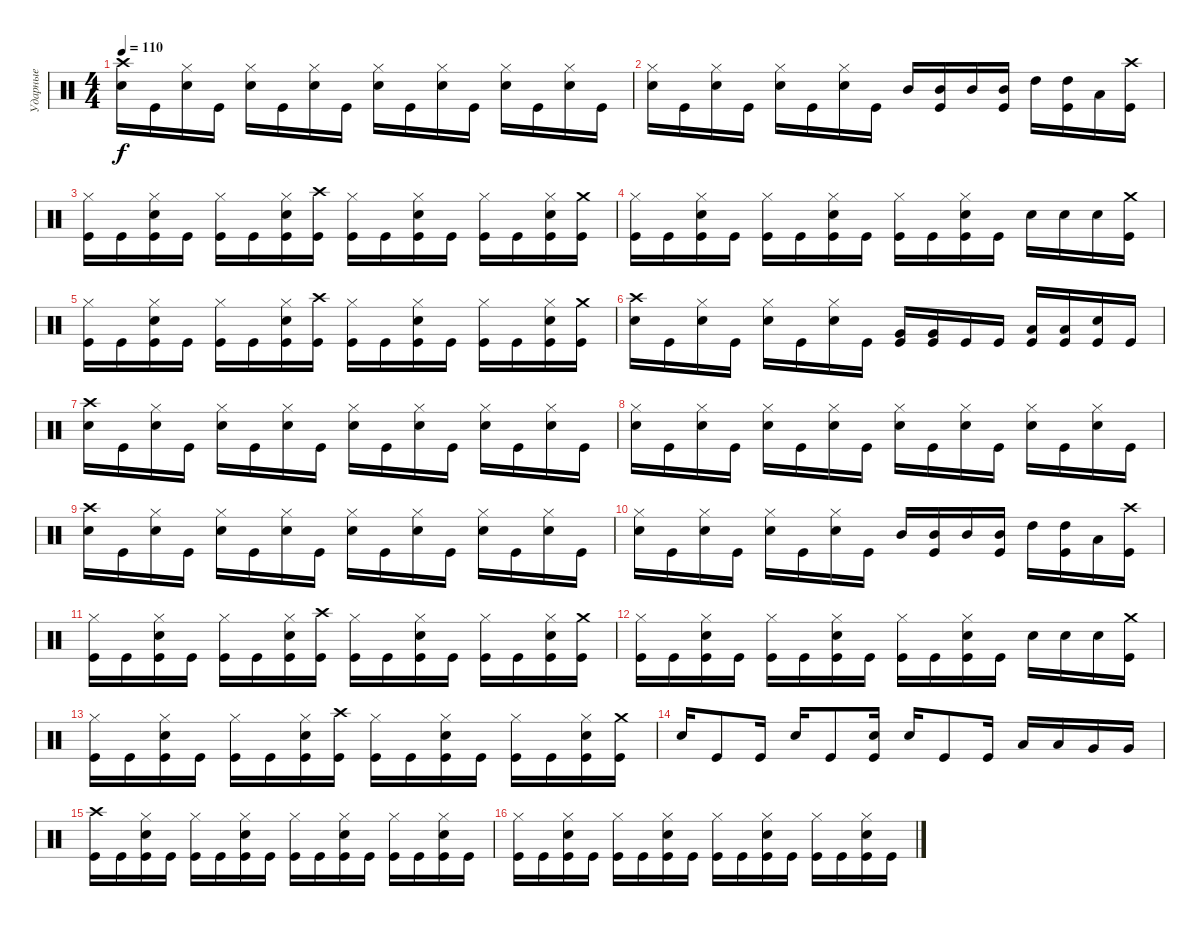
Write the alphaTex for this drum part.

\track ("Ударные" "Ударные") {instrument percussion}
\staff {score}
\articulation defaults
\ts (4 4)
\tempo 110
\clef neutral
\ks c
("Crash high (hit)" "Electric Snare (hit)").16{dy f} "Kick (hit)".16 ("Hi-Hat (closed)" "Electric Snare (hit)").16 "Kick (hit)".16 ("Hi-Hat (closed)" "Electric Snare (hit)").16 "Kick (hit)".16 ("Hi-Hat (closed)" "Electric Snare (hit)").16 "Kick (hit)".16 ("Hi-Hat (closed)" "Electric Snare (hit)").16 "Kick (hit)".16 ("Hi-Hat (closed)" "Electric Snare (hit)").16 "Kick (hit)".16 ("Hi-Hat (closed)" "Electric Snare (hit)").16 "Kick (hit)".16 ("Hi-Hat (closed)" "Electric Snare (hit)").16 "Kick (hit)".16 |
("Hi-Hat (closed)" "Electric Snare (hit)").16 "Kick (hit)".16 ("Hi-Hat (closed)" "Electric Snare (hit)").16 "Kick (hit)".16 ("Hi-Hat (closed)" "Electric Snare (hit)").16 "Kick (hit)".16 ("Hi-Hat (closed)" "Electric Snare (hit)").16 "Kick (hit)".16 "Mid Tom (hit)".16 ("Mid Tom (hit)" "Kick (hit)").16 "Mid Tom (hit)".16 ("Mid Tom (hit)" "Kick (hit)").16 "High Tom (hit)".16 ("High Tom (hit)" "Kick (hit)").16 "Low Tom (hit)".16 ("Crash high (hit)" "Kick (hit)").16 |
("Hi-Hat (closed)" "Kick (hit)").16 "Kick (hit)".16 ("Hi-Hat (closed)" "Electric Snare (hit)" "Kick (hit)").16 "Kick (hit)".16 ("Hi-Hat (closed)" "Kick (hit)").16 "Kick (hit)".16 ("Hi-Hat (closed)" "Electric Snare (hit)" "Kick (hit)").16 ("Crash high (hit)" "Kick (hit)").16 ("Hi-Hat (closed)" "Kick (hit)").16 "Kick (hit)".16 ("Hi-Hat (closed)" "Electric Snare (hit)" "Kick (hit)").16 "Kick (hit)".16 ("Hi-Hat (closed)" "Kick (hit)").16 "Kick (hit)".16 ("Hi-Hat (closed)" "Electric Snare (hit)" "Kick (hit)").16 ("Crash medium (hit)" "Kick (hit)").16 |
("Hi-Hat (closed)" "Kick (hit)").16 "Kick (hit)".16 ("Hi-Hat (closed)" "Electric Snare (hit)" "Kick (hit)").16 "Kick (hit)".16 ("Hi-Hat (closed)" "Kick (hit)").16 "Kick (hit)".16 ("Hi-Hat (closed)" "Electric Snare (hit)" "Kick (hit)").16 "Kick (hit)".16 ("Hi-Hat (closed)" "Kick (hit)").16 "Kick (hit)".16 ("Hi-Hat (closed)" "Electric Snare (hit)" "Kick (hit)").16 "Kick (hit)".16 "Electric Snare (hit)".16 "Electric Snare (hit)".16 "Electric Snare (hit)".16 ("Crash medium (hit)" "Kick (hit)").16 |
("Hi-Hat (closed)" "Kick (hit)").16 "Kick (hit)".16 ("Hi-Hat (closed)" "Electric Snare (hit)" "Kick (hit)").16 "Kick (hit)".16 ("Hi-Hat (closed)" "Kick (hit)").16 "Kick (hit)".16 ("Hi-Hat (closed)" "Electric Snare (hit)" "Kick (hit)").16 ("Crash high (hit)" "Kick (hit)").16 ("Hi-Hat (closed)" "Kick (hit)").16 "Kick (hit)".16 ("Hi-Hat (closed)" "Electric Snare (hit)" "Kick (hit)").16 "Kick (hit)".16 ("Hi-Hat (closed)" "Kick (hit)").16 "Kick (hit)".16 ("Hi-Hat (closed)" "Electric Snare (hit)" "Kick (hit)").16 ("Crash medium (hit)" "Kick (hit)").16 |
("Crash high (hit)" "Electric Snare (hit)").16 "Kick (hit)".16 ("Hi-Hat (closed)" "Electric Snare (hit)").16 "Kick (hit)".16 ("Hi-Hat (closed)" "Electric Snare (hit)").16 "Kick (hit)".16 ("Hi-Hat (closed)" "Electric Snare (hit)").16 "Kick (hit)".16 ("Very Low Tom (hit)" "Kick (hit)").16 ("Very Low Tom (hit)" "Kick (hit)").16 "Kick (hit)".16 "Kick (hit)".16 ("Low Tom (hit)" "Kick (hit)").16 ("Low Tom (hit)" "Kick (hit)").16 ("Electric Snare (hit)" "Kick (hit)").16 "Kick (hit)".16 |
("Crash high (hit)" "Electric Snare (hit)").16 "Kick (hit)".16 ("Hi-Hat (closed)" "Electric Snare (hit)").16 "Kick (hit)".16 ("Hi-Hat (closed)" "Electric Snare (hit)").16 "Kick (hit)".16 ("Hi-Hat (closed)" "Electric Snare (hit)").16 "Kick (hit)".16 ("Hi-Hat (closed)" "Electric Snare (hit)").16 "Kick (hit)".16 ("Hi-Hat (closed)" "Electric Snare (hit)").16 "Kick (hit)".16 ("Hi-Hat (closed)" "Electric Snare (hit)").16 "Kick (hit)".16 ("Hi-Hat (closed)" "Electric Snare (hit)").16 "Kick (hit)".16 |
("Hi-Hat (closed)" "Electric Snare (hit)").16 "Kick (hit)".16 ("Hi-Hat (closed)" "Electric Snare (hit)").16 "Kick (hit)".16 ("Hi-Hat (closed)" "Electric Snare (hit)").16 "Kick (hit)".16 ("Hi-Hat (closed)" "Electric Snare (hit)").16 "Kick (hit)".16 ("Hi-Hat (closed)" "Electric Snare (hit)").16 "Kick (hit)".16 ("Hi-Hat (closed)" "Electric Snare (hit)").16 "Kick (hit)".16 ("Hi-Hat (closed)" "Electric Snare (hit)").16 "Kick (hit)".16 ("Hi-Hat (closed)" "Electric Snare (hit)").16 "Kick (hit)".16 |
("Crash high (hit)" "Electric Snare (hit)").16 "Kick (hit)".16 ("Hi-Hat (closed)" "Electric Snare (hit)").16 "Kick (hit)".16 ("Hi-Hat (closed)" "Electric Snare (hit)").16 "Kick (hit)".16 ("Hi-Hat (closed)" "Electric Snare (hit)").16 "Kick (hit)".16 ("Hi-Hat (closed)" "Electric Snare (hit)").16 "Kick (hit)".16 ("Hi-Hat (closed)" "Electric Snare (hit)").16 "Kick (hit)".16 ("Hi-Hat (closed)" "Electric Snare (hit)").16 "Kick (hit)".16 ("Hi-Hat (closed)" "Electric Snare (hit)").16 "Kick (hit)".16 |
("Hi-Hat (closed)" "Electric Snare (hit)").16 "Kick (hit)".16 ("Hi-Hat (closed)" "Electric Snare (hit)").16 "Kick (hit)".16 ("Hi-Hat (closed)" "Electric Snare (hit)").16 "Kick (hit)".16 ("Hi-Hat (closed)" "Electric Snare (hit)").16 "Kick (hit)".16 "Mid Tom (hit)".16 ("Mid Tom (hit)" "Kick (hit)").16 "Mid Tom (hit)".16 ("Mid Tom (hit)" "Kick (hit)").16 "High Tom (hit)".16 ("High Tom (hit)" "Kick (hit)").16 "Low Tom (hit)".16 ("Crash high (hit)" "Kick (hit)").16 |
("Hi-Hat (closed)" "Kick (hit)").16 "Kick (hit)".16 ("Hi-Hat (closed)" "Electric Snare (hit)" "Kick (hit)").16 "Kick (hit)".16 ("Hi-Hat (closed)" "Kick (hit)").16 "Kick (hit)".16 ("Hi-Hat (closed)" "Electric Snare (hit)" "Kick (hit)").16 ("Crash high (hit)" "Kick (hit)").16 ("Hi-Hat (closed)" "Kick (hit)").16 "Kick (hit)".16 ("Hi-Hat (closed)" "Electric Snare (hit)" "Kick (hit)").16 "Kick (hit)".16 ("Hi-Hat (closed)" "Kick (hit)").16 "Kick (hit)".16 ("Hi-Hat (closed)" "Electric Snare (hit)" "Kick (hit)").16 ("Crash medium (hit)" "Kick (hit)").16 |
("Hi-Hat (closed)" "Kick (hit)").16 "Kick (hit)".16 ("Hi-Hat (closed)" "Electric Snare (hit)" "Kick (hit)").16 "Kick (hit)".16 ("Hi-Hat (closed)" "Kick (hit)").16 "Kick (hit)".16 ("Hi-Hat (closed)" "Electric Snare (hit)" "Kick (hit)").16 "Kick (hit)".16 ("Hi-Hat (closed)" "Kick (hit)").16 "Kick (hit)".16 ("Hi-Hat (closed)" "Electric Snare (hit)" "Kick (hit)").16 "Kick (hit)".16 "Electric Snare (hit)".16 "Electric Snare (hit)".16 "Electric Snare (hit)".16 ("Crash medium (hit)" "Kick (hit)").16 |
("Hi-Hat (closed)" "Kick (hit)").16 "Kick (hit)".16 ("Hi-Hat (closed)" "Electric Snare (hit)" "Kick (hit)").16 "Kick (hit)".16 ("Hi-Hat (closed)" "Kick (hit)").16 "Kick (hit)".16 ("Hi-Hat (closed)" "Electric Snare (hit)" "Kick (hit)").16 ("Crash high (hit)" "Kick (hit)").16 ("Hi-Hat (closed)" "Kick (hit)").16 "Kick (hit)".16 ("Hi-Hat (closed)" "Electric Snare (hit)" "Kick (hit)").16 "Kick (hit)".16 ("Hi-Hat (closed)" "Kick (hit)").16 "Kick (hit)".16 ("Hi-Hat (closed)" "Electric Snare (hit)" "Kick (hit)").16 ("Crash medium (hit)" "Kick (hit)").16 |
"Electric Snare (hit)".16 "Kick (hit)".8 "Kick (hit)".16 "Electric Snare (hit)".16 "Kick (hit)".8 ("Electric Snare (hit)" "Kick (hit)").16 "Electric Snare (hit)".16 "Kick (hit)".8 "Kick (hit)".16 "Low Tom (hit)".16 "Low Tom (hit)".16 "Very Low Tom (hit)".16 "Very Low Tom (hit)".16 |
("Crash high (hit)" "Kick (hit)").16 "Kick (hit)".16 ("Hi-Hat (closed)" "Electric Snare (hit)" "Kick (hit)").16 "Kick (hit)".16 ("Hi-Hat (closed)" "Kick (hit)").16 "Kick (hit)".16 ("Hi-Hat (closed)" "Electric Snare (hit)" "Kick (hit)").16 "Kick (hit)".16 ("Hi-Hat (closed)" "Kick (hit)").16 "Kick (hit)".16 ("Hi-Hat (closed)" "Electric Snare (hit)" "Kick (hit)").16 "Kick (hit)".16 ("Hi-Hat (closed)" "Kick (hit)").16 "Kick (hit)".16 ("Hi-Hat (closed)" "Electric Snare (hit)" "Kick (hit)").16 "Kick (hit)".16 |
("Hi-Hat (closed)" "Kick (hit)").16 "Kick (hit)".16 ("Hi-Hat (closed)" "Electric Snare (hit)" "Kick (hit)").16 "Kick (hit)".16 ("Hi-Hat (closed)" "Kick (hit)").16 "Kick (hit)".16 ("Hi-Hat (closed)" "Electric Snare (hit)" "Kick (hit)").16 "Kick (hit)".16 ("Hi-Hat (closed)" "Kick (hit)").16 "Kick (hit)".16 ("Hi-Hat (closed)" "Electric Snare (hit)" "Kick (hit)").16 "Kick (hit)".16 ("Hi-Hat (closed)" "Kick (hit)").16 "Kick (hit)".16 ("Hi-Hat (closed)" "Electric Snare (hit)" "Kick (hit)").16 "Kick (hit)".16
